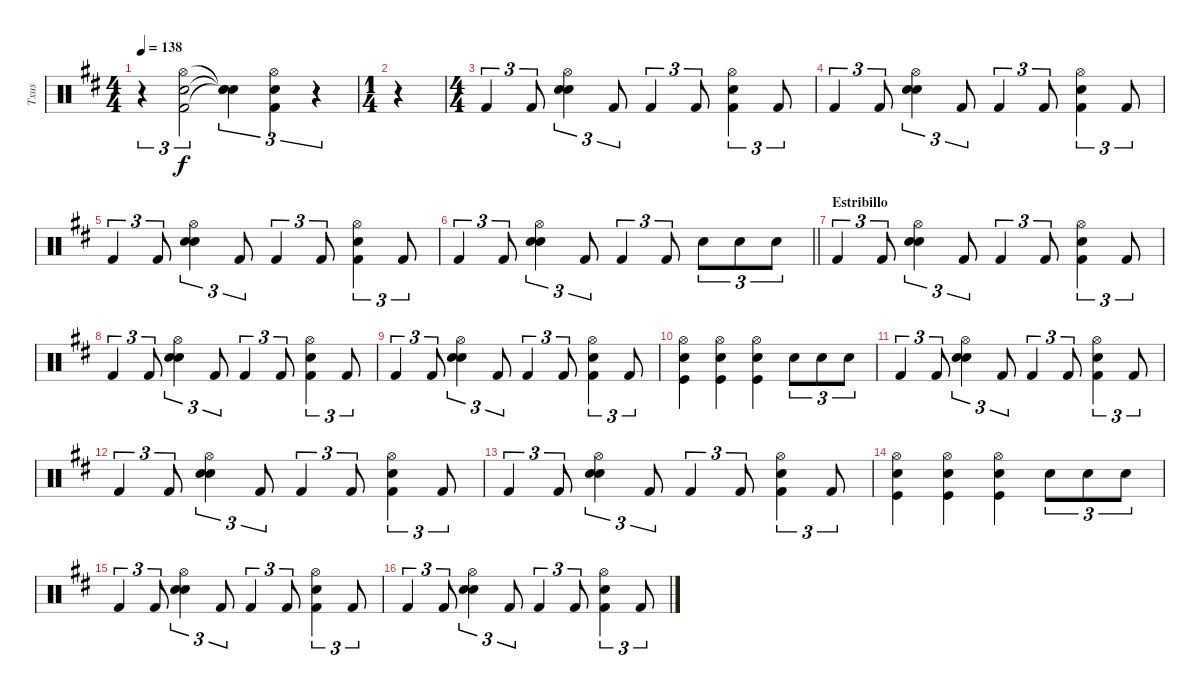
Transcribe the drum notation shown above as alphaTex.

\track ("Txus" "Txus") {instrument percussion}
\staff {score}
\articulation defaults
\ts (4 4)
\tempo 138
\clef neutral
\ks d
r.4{tu (3 2) dy f} ("Hi-Hat (open)" "Electric Snare (hit)" "Kick (hit) 2").2{tu (3 2)} ("Snare (hit)"{t} "Snare (hit)"{t} "Snare (hit)"{t}).4{tu (3 2)} ("Hi-Hat (open)" "Electric Snare (hit)" "Kick (hit) 2").4{tu (3 2)} r.4{tu (3 2)} |
\ts (1 4)
r.4 |
\ts (4 4)
"Kick (hit) 2".4{tu (3 2)} "Kick (hit) 2".8{tu (3 2)} ("Hi-Hat (open)" "Electric Snare (hit)" "Snare (hit) 2").4{tu (3 2)} "Kick (hit) 2".8{tu (3 2)} "Kick (hit) 2".4{tu (3 2)} "Kick (hit) 2".8{tu (3 2)} ("Hi-Hat (open)" "Electric Snare (hit)" "Kick (hit) 2").4{tu (3 2)} "Kick (hit) 2".8{tu (3 2)} |
"Kick (hit) 2".4{tu (3 2)} "Kick (hit) 2".8{tu (3 2)} ("Hi-Hat (open)" "Electric Snare (hit)" "Snare (hit) 2").4{tu (3 2)} "Kick (hit) 2".8{tu (3 2)} "Kick (hit) 2".4{tu (3 2)} "Kick (hit) 2".8{tu (3 2)} ("Hi-Hat (open)" "Electric Snare (hit)" "Kick (hit) 2").4{tu (3 2)} "Kick (hit) 2".8{tu (3 2)} |
"Kick (hit) 2".4{tu (3 2)} "Kick (hit) 2".8{tu (3 2)} ("Hi-Hat (open)" "Electric Snare (hit)" "Snare (hit) 2").4{tu (3 2)} "Kick (hit) 2".8{tu (3 2)} "Kick (hit) 2".4{tu (3 2)} "Kick (hit) 2".8{tu (3 2)} ("Hi-Hat (open)" "Electric Snare (hit)" "Kick (hit) 2").4{tu (3 2)} "Kick (hit) 2".8{tu (3 2)} |
\barLineRight lightlight "Kick (hit) 2".4{tu (3 2)} "Kick (hit) 2".8{tu (3 2)}
("Hi-Hat (open)" "Electric Snare (hit)" "Snare (hit) 2").4{tu (3 2)} "Kick (hit) 2".8{tu (3 2)} "Kick (hit) 2".4{tu (3 2)} "Kick (hit) 2".8{tu (3 2)} "Electric Snare (hit)".8{tu (3 2)} "Electric Snare (hit)".8{tu (3 2)} "Electric Snare (hit)".8{tu (3 2)} |
\section ("" "Estribillo")
"Kick (hit) 2".4{tu (3 2)} "Kick (hit) 2".8{tu (3 2)} ("Hi-Hat (open)" "Electric Snare (hit)" "Snare (hit) 2").4{tu (3 2)} "Kick (hit) 2".8{tu (3 2)} "Kick (hit) 2".4{tu (3 2)} "Kick (hit) 2".8{tu (3 2)} ("Hi-Hat (open)" "Electric Snare (hit)" "Kick (hit) 2").4{tu (3 2)} "Kick (hit) 2".8{tu (3 2)} |
"Kick (hit) 2".4{tu (3 2)} "Kick (hit) 2".8{tu (3 2)} ("Hi-Hat (open)" "Electric Snare (hit)" "Snare (hit) 2").4{tu (3 2)} "Kick (hit) 2".8{tu (3 2)} "Kick (hit) 2".4{tu (3 2)} "Kick (hit) 2".8{tu (3 2)} ("Hi-Hat (open)" "Electric Snare (hit)" "Kick (hit) 2").4{tu (3 2)} "Kick (hit) 2".8{tu (3 2)} |
"Kick (hit) 2".4{tu (3 2)} "Kick (hit) 2".8{tu (3 2)} ("Hi-Hat (open)" "Electric Snare (hit)" "Snare (hit) 2").4{tu (3 2)} "Kick (hit) 2".8{tu (3 2)} "Kick (hit) 2".4{tu (3 2)} "Kick (hit) 2".8{tu (3 2)} ("Hi-Hat (open)" "Electric Snare (hit)" "Kick (hit) 2").4{tu (3 2)} "Kick (hit) 2".8{tu (3 2)} |
("Hi-Hat (open)" "Electric Snare (hit)" "Kick (hit)").4 ("Hi-Hat (open)" "Electric Snare (hit)" "Kick (hit)").4 ("Hi-Hat (open)" "Electric Snare (hit)" "Kick (hit)").4 "Electric Snare (hit)".8{tu (3 2)} "Electric Snare (hit)".8{tu (3 2)} "Electric Snare (hit)".8{tu (3 2)} |
"Kick (hit) 2".4{tu (3 2)} "Kick (hit) 2".8{tu (3 2)} ("Hi-Hat (open)" "Electric Snare (hit)" "Snare (hit) 2").4{tu (3 2)} "Kick (hit) 2".8{tu (3 2)} "Kick (hit) 2".4{tu (3 2)} "Kick (hit) 2".8{tu (3 2)} ("Hi-Hat (open)" "Electric Snare (hit)" "Kick (hit) 2").4{tu (3 2)} "Kick (hit) 2".8{tu (3 2)} |
"Kick (hit) 2".4{tu (3 2)} "Kick (hit) 2".8{tu (3 2)} ("Hi-Hat (open)" "Electric Snare (hit)" "Snare (hit) 2").4{tu (3 2)} "Kick (hit) 2".8{tu (3 2)} "Kick (hit) 2".4{tu (3 2)} "Kick (hit) 2".8{tu (3 2)} ("Hi-Hat (open)" "Electric Snare (hit)" "Kick (hit) 2").4{tu (3 2)} "Kick (hit) 2".8{tu (3 2)} |
"Kick (hit) 2".4{tu (3 2)} "Kick (hit) 2".8{tu (3 2)} ("Hi-Hat (open)" "Electric Snare (hit)" "Snare (hit) 2").4{tu (3 2)} "Kick (hit) 2".8{tu (3 2)} "Kick (hit) 2".4{tu (3 2)} "Kick (hit) 2".8{tu (3 2)} ("Hi-Hat (open)" "Electric Snare (hit)" "Kick (hit) 2").4{tu (3 2)} "Kick (hit) 2".8{tu (3 2)} |
("Hi-Hat (open)" "Electric Snare (hit)" "Kick (hit)").4 ("Hi-Hat (open)" "Electric Snare (hit)" "Kick (hit)").4 ("Hi-Hat (open)" "Electric Snare (hit)" "Kick (hit)").4 "Electric Snare (hit)".8{tu (3 2)} "Electric Snare (hit)".8{tu (3 2)} "Electric Snare (hit)".8{tu (3 2)} |
"Kick (hit) 2".4{tu (3 2)} "Kick (hit) 2".8{tu (3 2)} ("Hi-Hat (open)" "Electric Snare (hit)" "Snare (hit) 2").4{tu (3 2)} "Kick (hit) 2".8{tu (3 2)} "Kick (hit) 2".4{tu (3 2)} "Kick (hit) 2".8{tu (3 2)} ("Hi-Hat (open)" "Electric Snare (hit)" "Kick (hit) 2").4{tu (3 2)} "Kick (hit) 2".8{tu (3 2)} |
"Kick (hit) 2".4{tu (3 2)} "Kick (hit) 2".8{tu (3 2)} ("Hi-Hat (open)" "Electric Snare (hit)" "Snare (hit) 2").4{tu (3 2)} "Kick (hit) 2".8{tu (3 2)} "Kick (hit) 2".4{tu (3 2)} "Kick (hit) 2".8{tu (3 2)} ("Hi-Hat (open)" "Electric Snare (hit)" "Kick (hit) 2").4{tu (3 2)} "Kick (hit) 2".8{tu (3 2)}
